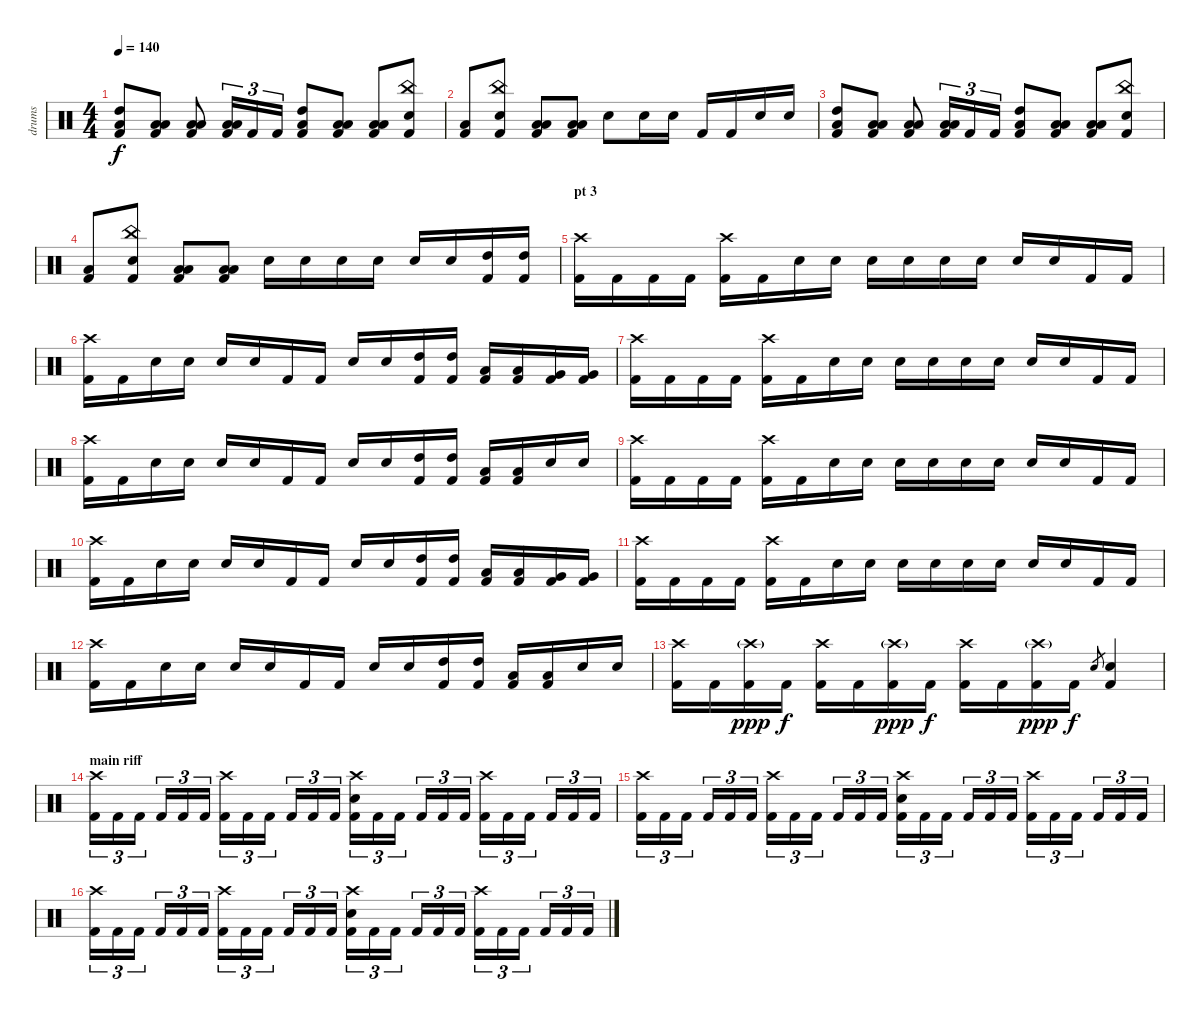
\track ("drums" "drums") {instrument percussion}
\staff {score}
\articulation defaults
\ts (4 4)
\tempo 140
\clef neutral
\ks c
("High Tom (hit)" "Low Floor Tom (hit)" "Kick (hit) 2").8{dy f} ("Low Tom (hit)" "Low Floor Tom (hit)" "Kick (hit) 2").8 ("Low Tom (hit)" "Low Floor Tom (hit)" "Kick (hit) 2").8 ("Low Tom (hit)" "Low Floor Tom (hit)" "Kick (hit) 2").16{tu (3 2)} "Kick (hit) 2".16{tu (3 2)} "Kick (hit) 2".16{tu (3 2)} ("High Tom (hit)" "Low Floor Tom (hit)" "Kick (hit) 2").8 ("Low Tom (hit)" "Low Floor Tom (hit)" "Kick (hit) 2").8 ("Low Tom (hit)" "Low Floor Tom (hit)" "Kick (hit) 2").8 ("China (hit)" "Electric Snare (hit)" "Kick (hit) 2").8 |
("Low Floor Tom (hit)" "Kick (hit) 2").8 ("China (hit)" "Electric Snare (hit)" "Kick (hit) 2").8 ("Low Tom (hit)" "Low Floor Tom (hit)" "Kick (hit) 2").8 ("Low Tom (hit)" "Low Floor Tom (hit)" "Kick (hit) 2").8 "Electric Snare (hit)".8 "Electric Snare (hit)".16 "Electric Snare (hit)".16 "Kick (hit) 2".16 "Kick (hit) 2".16 "Electric Snare (hit)".16 "Electric Snare (hit)".16 |
("High Tom (hit)" "Low Floor Tom (hit)" "Kick (hit) 2").8 ("Low Tom (hit)" "Low Floor Tom (hit)" "Kick (hit) 2").8 ("Low Tom (hit)" "Low Floor Tom (hit)" "Kick (hit) 2").8 ("Low Tom (hit)" "Low Floor Tom (hit)" "Kick (hit) 2").16{tu (3 2)} "Kick (hit) 2".16{tu (3 2)} "Kick (hit) 2".16{tu (3 2)} ("High Tom (hit)" "Low Floor Tom (hit)" "Kick (hit) 2").8 ("Low Tom (hit)" "Low Floor Tom (hit)" "Kick (hit) 2").8 ("Low Tom (hit)" "Low Floor Tom (hit)" "Kick (hit) 2").8 ("China (hit)" "Electric Snare (hit)" "Kick (hit) 2").8 |
("Low Floor Tom (hit)" "Kick (hit) 2").8 ("China (hit)" "Electric Snare (hit)" "Kick (hit) 2").8 ("Low Tom (hit)" "Low Floor Tom (hit)" "Kick (hit) 2").8 ("Low Tom (hit)" "Low Floor Tom (hit)" "Kick (hit) 2").8 "Electric Snare (hit)".16 "Electric Snare (hit)".16 "Electric Snare (hit)".16 "Electric Snare (hit)".16 "Electric Snare (hit)".16 "Electric Snare (hit)".16 ("High Tom (hit)" "Kick (hit) 2").16 ("High Tom (hit)" "Kick (hit) 2").16 |
\section ("" "pt 3")
("Crash high (hit)" "Kick (hit) 2").16 "Kick (hit) 2".16 "Kick (hit) 2".16 "Kick (hit) 2".16 ("Crash high (hit)" "Kick (hit) 2").16 "Kick (hit) 2".16 "Electric Snare (hit)".16 "Electric Snare (hit)".16 "Electric Snare (hit)".16 "Electric Snare (hit)".16 "Electric Snare (hit)".16 "Electric Snare (hit)".16 "Electric Snare (hit)".16 "Electric Snare (hit)".16 "Kick (hit) 2".16 "Kick (hit) 2".16 |
("Crash high (hit)" "Kick (hit) 2").16 "Kick (hit) 2".16 "Electric Snare (hit)".16 "Electric Snare (hit)".16 "Electric Snare (hit)".16 "Electric Snare (hit)".16 "Kick (hit) 2".16 "Kick (hit) 2".16 "Electric Snare (hit)".16 "Electric Snare (hit)".16 ("High Tom (hit)" "Kick (hit) 2").16 ("High Tom (hit)" "Kick (hit) 2").16 ("Low Tom (hit)" "Kick (hit) 2").16 ("Low Tom (hit)" "Kick (hit) 2").16 ("Very Low Tom (hit)" "Kick (hit) 2").16 ("Very Low Tom (hit)" "Kick (hit) 2").16 |
("Crash high (hit)" "Kick (hit) 2").16 "Kick (hit) 2".16 "Kick (hit) 2".16 "Kick (hit) 2".16 ("Crash high (hit)" "Kick (hit) 2").16 "Kick (hit) 2".16 "Electric Snare (hit)".16 "Electric Snare (hit)".16 "Electric Snare (hit)".16 "Electric Snare (hit)".16 "Electric Snare (hit)".16 "Electric Snare (hit)".16 "Electric Snare (hit)".16 "Electric Snare (hit)".16 "Kick (hit) 2".16 "Kick (hit) 2".16 |
("Crash high (hit)" "Kick (hit) 2").16 "Kick (hit) 2".16 "Electric Snare (hit)".16 "Electric Snare (hit)".16 "Electric Snare (hit)".16 "Electric Snare (hit)".16 "Kick (hit) 2".16 "Kick (hit) 2".16 "Electric Snare (hit)".16 "Electric Snare (hit)".16 ("High Tom (hit)" "Kick (hit) 2").16 ("High Tom (hit)" "Kick (hit) 2").16 ("Low Tom (hit)" "Kick (hit) 2").16 ("Low Tom (hit)" "Kick (hit) 2").16 "Electric Snare (hit)".16 "Electric Snare (hit)".16 |
("Crash high (hit)" "Kick (hit) 2").16 "Kick (hit) 2".16 "Kick (hit) 2".16 "Kick (hit) 2".16 ("Crash high (hit)" "Kick (hit) 2").16 "Kick (hit) 2".16 "Electric Snare (hit)".16 "Electric Snare (hit)".16 "Electric Snare (hit)".16 "Electric Snare (hit)".16 "Electric Snare (hit)".16 "Electric Snare (hit)".16 "Electric Snare (hit)".16 "Electric Snare (hit)".16 "Kick (hit) 2".16 "Kick (hit) 2".16 |
("Crash high (hit)" "Kick (hit) 2").16 "Kick (hit) 2".16 "Electric Snare (hit)".16 "Electric Snare (hit)".16 "Electric Snare (hit)".16 "Electric Snare (hit)".16 "Kick (hit) 2".16 "Kick (hit) 2".16 "Electric Snare (hit)".16 "Electric Snare (hit)".16 ("High Tom (hit)" "Kick (hit) 2").16 ("High Tom (hit)" "Kick (hit) 2").16 ("Low Tom (hit)" "Kick (hit) 2").16 ("Low Tom (hit)" "Kick (hit) 2").16 ("Very Low Tom (hit)" "Kick (hit) 2").16 ("Very Low Tom (hit)" "Kick (hit) 2").16 |
("Crash high (hit)" "Kick (hit) 2").16 "Kick (hit) 2".16 "Kick (hit) 2".16 "Kick (hit) 2".16 ("Crash high (hit)" "Kick (hit) 2").16 "Kick (hit) 2".16 "Electric Snare (hit)".16 "Electric Snare (hit)".16 "Electric Snare (hit)".16 "Electric Snare (hit)".16 "Electric Snare (hit)".16 "Electric Snare (hit)".16 "Electric Snare (hit)".16 "Electric Snare (hit)".16 "Kick (hit) 2".16 "Kick (hit) 2".16 |
("Crash high (hit)" "Kick (hit) 2").16 "Kick (hit) 2".16 "Electric Snare (hit)".16 "Electric Snare (hit)".16 "Electric Snare (hit)".16 "Electric Snare (hit)".16 "Kick (hit) 2".16 "Kick (hit) 2".16 "Electric Snare (hit)".16 "Electric Snare (hit)".16 ("High Tom (hit)" "Kick (hit) 2").16 ("High Tom (hit)" "Kick (hit) 2").16 ("Low Tom (hit)" "Kick (hit) 2").16 ("Low Tom (hit)" "Kick (hit) 2").16 "Electric Snare (hit)".16 "Electric Snare (hit)".16 |
\section ("" "")
("Crash high (hit)"{pm} "Kick (hit) 2").16 "Kick (hit) 2".16 ("Crash high (hit)"{g} "Kick (hit) 2").16{dy ppp} "Kick (hit) 2".16{dy f} ("Crash high (hit)"{pm} "Kick (hit) 2").16 "Kick (hit) 2".16 ("Crash high (hit)"{g} "Kick (hit) 2").16{dy ppp} "Kick (hit) 2".16{dy f} ("Crash high (hit)"{pm} "Kick (hit) 2").16 "Kick (hit) 2".16 ("Crash high (hit)"{g} "Kick (hit) 2").16{dy ppp} "Kick (hit) 2".16{dy f} "Electric Snare (hit)".8{gr} ("Electric Snare (hit)" "Kick (hit) 2").4 |
\section ("" "main riff")
("Crash high (hit)" "Kick (hit) 2").16{tu (3 2)} "Kick (hit) 2".16{tu (3 2)} "Kick (hit) 2".16{tu (3 2)} "Kick (hit) 2".16{tu (3 2)} "Kick (hit) 2".16{tu (3 2)} "Kick (hit) 2".16{tu (3 2)} ("Crash high (hit)" "Kick (hit) 2").16{tu (3 2)} "Kick (hit) 2".16{tu (3 2)} "Kick (hit) 2".16{tu (3 2)} "Kick (hit) 2".16{tu (3 2)} "Kick (hit) 2".16{tu (3 2)} "Kick (hit) 2".16{tu (3 2)} ("Crash high (hit)" "Electric Snare (hit)" "Kick (hit) 2").16{tu (3 2)} "Kick (hit) 2".16{tu (3 2)} "Kick (hit) 2".16{tu (3 2)} "Kick (hit) 2".16{tu (3 2)} "Kick (hit) 2".16{tu (3 2)} "Kick (hit) 2".16{tu (3 2)} ("Crash high (hit)" "Kick (hit) 2").16{tu (3 2)} "Kick (hit) 2".16{tu (3 2)} "Kick (hit) 2".16{tu (3 2)} "Kick (hit) 2".16{tu (3 2)} "Kick (hit) 2".16{tu (3 2)} "Kick (hit) 2".16{tu (3 2)} |
("Crash high (hit)" "Kick (hit) 2").16{tu (3 2)} "Kick (hit) 2".16{tu (3 2)} "Kick (hit) 2".16{tu (3 2)} "Kick (hit) 2".16{tu (3 2)} "Kick (hit) 2".16{tu (3 2)} "Kick (hit) 2".16{tu (3 2)} ("Crash high (hit)" "Kick (hit) 2").16{tu (3 2)} "Kick (hit) 2".16{tu (3 2)} "Kick (hit) 2".16{tu (3 2)} "Kick (hit) 2".16{tu (3 2)} "Kick (hit) 2".16{tu (3 2)} "Kick (hit) 2".16{tu (3 2)} ("Crash high (hit)" "Electric Snare (hit)" "Kick (hit) 2").16{tu (3 2)} "Kick (hit) 2".16{tu (3 2)} "Kick (hit) 2".16{tu (3 2)} "Kick (hit) 2".16{tu (3 2)} "Kick (hit) 2".16{tu (3 2)} "Kick (hit) 2".16{tu (3 2)} ("Crash high (hit)" "Kick (hit) 2").16{tu (3 2)} "Kick (hit) 2".16{tu (3 2)} "Kick (hit) 2".16{tu (3 2)} "Kick (hit) 2".16{tu (3 2)} "Kick (hit) 2".16{tu (3 2)} "Kick (hit) 2".16{tu (3 2)} |
("Crash high (hit)" "Kick (hit) 2").16{tu (3 2)} "Kick (hit) 2".16{tu (3 2)} "Kick (hit) 2".16{tu (3 2)} "Kick (hit) 2".16{tu (3 2)} "Kick (hit) 2".16{tu (3 2)} "Kick (hit) 2".16{tu (3 2)} ("Crash high (hit)" "Kick (hit) 2").16{tu (3 2)} "Kick (hit) 2".16{tu (3 2)} "Kick (hit) 2".16{tu (3 2)} "Kick (hit) 2".16{tu (3 2)} "Kick (hit) 2".16{tu (3 2)} "Kick (hit) 2".16{tu (3 2)} ("Crash high (hit)" "Electric Snare (hit)" "Kick (hit) 2").16{tu (3 2)} "Kick (hit) 2".16{tu (3 2)} "Kick (hit) 2".16{tu (3 2)} "Kick (hit) 2".16{tu (3 2)} "Kick (hit) 2".16{tu (3 2)} "Kick (hit) 2".16{tu (3 2)} ("Crash high (hit)" "Kick (hit) 2").16{tu (3 2)} "Kick (hit) 2".16{tu (3 2)} "Kick (hit) 2".16{tu (3 2)} "Kick (hit) 2".16{tu (3 2)} "Kick (hit) 2".16{tu (3 2)} "Kick (hit) 2".16{tu (3 2)}
